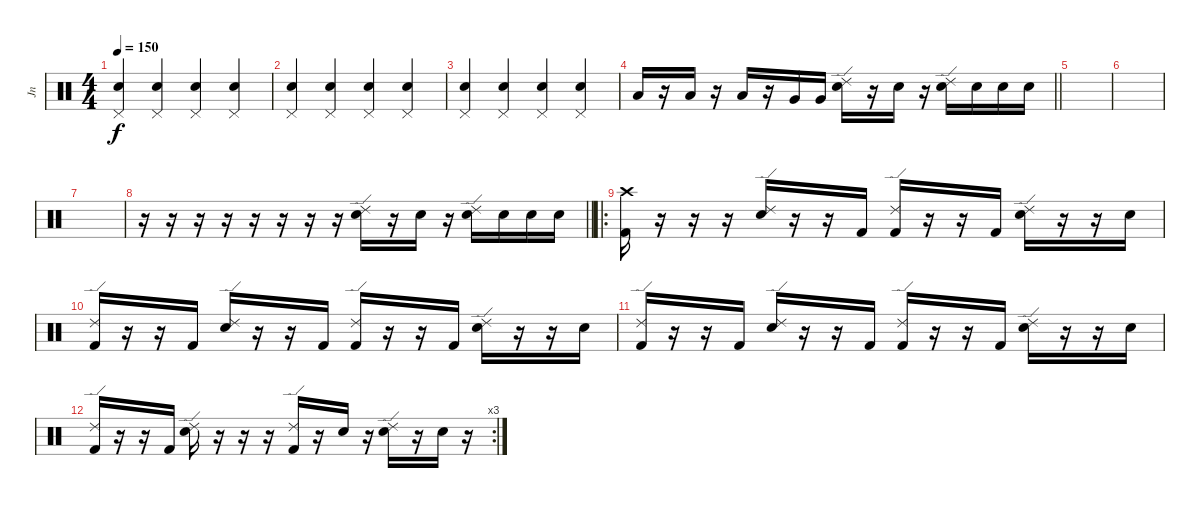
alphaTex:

\track ("Jn" "Jn") {instrument percussion}
\staff {score}
\articulation defaults
\ts (4 4)
\tempo 150
\clef neutral
\ks c
("Pedal Hi-Hat (hit)" "Hand Clap (hit)").4{dy f} ("Pedal Hi-Hat (hit)" "Hand Clap (hit)").4 ("Pedal Hi-Hat (hit)" "Hand Clap (hit)").4 ("Pedal Hi-Hat (hit)" "Hand Clap (hit)").4 |
("Pedal Hi-Hat (hit)" "Hand Clap (hit)").4 ("Pedal Hi-Hat (hit)" "Hand Clap (hit)").4 ("Pedal Hi-Hat (hit)" "Hand Clap (hit)").4 ("Pedal Hi-Hat (hit)" "Hand Clap (hit)").4 |
("Pedal Hi-Hat (hit)" "Hand Clap (hit)").4 ("Pedal Hi-Hat (hit)" "Hand Clap (hit)").4 ("Pedal Hi-Hat (hit)" "Hand Clap (hit)").4 ("Pedal Hi-Hat (hit)" "Hand Clap (hit)").4 |
\barLineRight lightlight "Low Tom (hit)".16
r.16 "Low Tom (hit)".16 r.16 "Low Tom (hit)".16 r.16 "Very Low Tom (hit)".16 "Very Low Tom (hit)".16 ("Ride (edge) 2" "Electric Snare (hit)").16 r.16 "Electric Snare (hit)".16 r.16 ("Ride (edge) 2" "Electric Snare (hit)").16 "Electric Snare (hit)".16 "Electric Snare (hit)".16 "Electric Snare (hit)".16 |
|
|
|
\barLineRight lightlight
r.16 r.16 r.16 r.16 r.16 r.16 r.16 r.16 ("Ride (edge) 2" "Electric Snare (hit)").16 r.16 "Electric Snare (hit)".16 r.16 ("Ride (edge) 2" "Electric Snare (hit)").16 "Electric Snare (hit)".16 "Electric Snare (hit)".16 "Electric Snare (hit)".16 |
\ro
("Crash high (hit)" "Kick (hit) 2").16 r.16 r.16 r.16 ("Ride (edge) 2" "Electric Snare (hit)").16 r.16 r.16 "Kick (hit) 2".16 ("Ride (edge) 2" "Kick (hit) 2").16 r.16 r.16 "Kick (hit) 2".16 ("Ride (edge) 2" "Electric Snare (hit)").16 r.16 r.16 "Electric Snare (hit)".16 |
("Ride (edge) 2" "Kick (hit) 2").16 r.16 r.16 "Kick (hit) 2".16 ("Ride (edge) 2" "Electric Snare (hit)").16 r.16 r.16 "Kick (hit) 2".16 ("Ride (edge) 2" "Kick (hit) 2").16 r.16 r.16 "Kick (hit) 2".16 ("Ride (edge) 2" "Electric Snare (hit)").16 r.16 r.16 "Electric Snare (hit)".16 |
("Ride (edge) 2" "Kick (hit) 2").16 r.16 r.16 "Kick (hit) 2".16 ("Ride (edge) 2" "Electric Snare (hit)").16 r.16 r.16 "Kick (hit) 2".16 ("Ride (edge) 2" "Kick (hit) 2").16 r.16 r.16 "Kick (hit) 2".16 ("Ride (edge) 2" "Electric Snare (hit)").16 r.16 r.16 "Electric Snare (hit)".16 |
\rc 3
("Ride (edge) 2" "Kick (hit) 2").16 r.16 r.16 "Kick (hit) 2".16 ("Ride (edge) 2" "Electric Snare (hit)").16 r.16 r.16 r.16 ("Ride (edge) 2" "Kick (hit) 2").16 r.16 "Electric Snare (hit)".16 r.16 ("Ride (edge) 2" "Electric Snare (hit)").16 r.16 "Electric Snare (hit)".16 r.16
